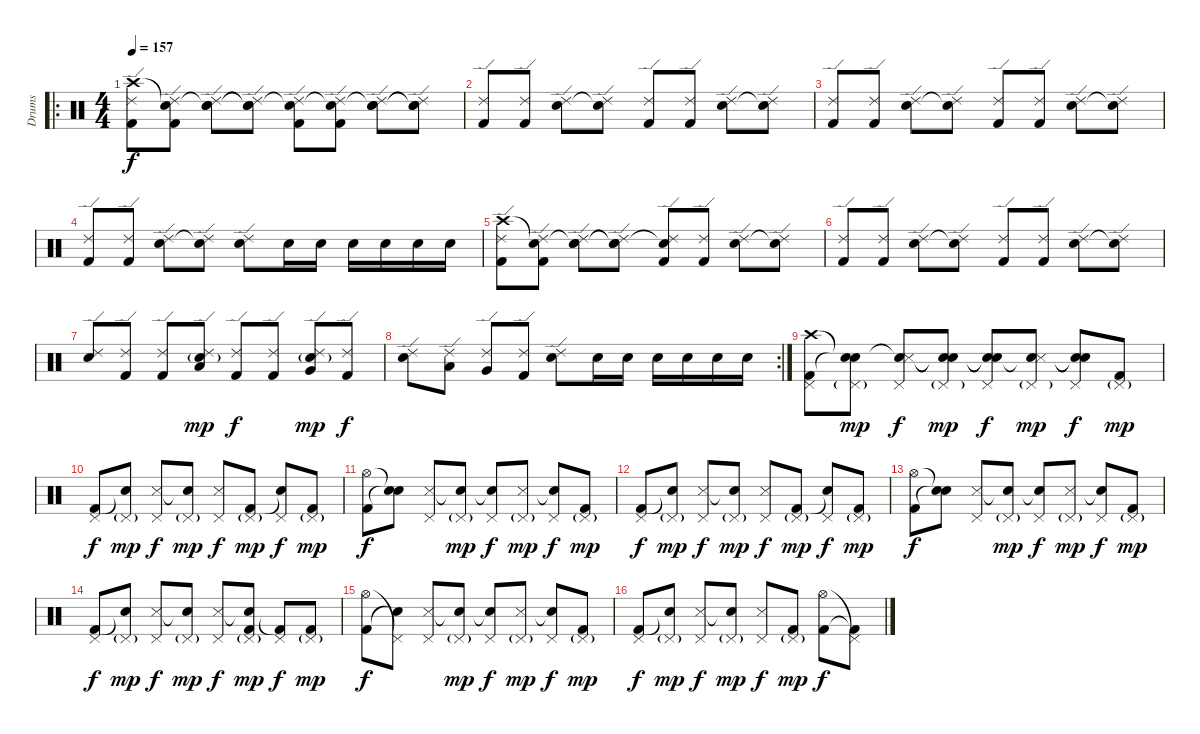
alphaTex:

\track ("Drums" "Drums") {instrument percussion}
\staff {score}
\articulation defaults
\ro
\ts (4 4)
\tempo 157
\clef neutral
\ks c
("Crash high (hit)" "Ride (edge) 2" "Kick (hit) 2").8{dy f} ("Snare (hit)"{t} "Ride (edge) 2" "Kick (hit) 2").8 ("Snare (hit)"{t} "Ride (edge) 2" "Electric Snare (hit)").8 ("Snare (hit)"{t} "Ride (edge) 2" "Snare (hit)"{t}).8 ("Snare (hit)"{t} "Ride (edge) 2" "Kick (hit) 2").8 ("Snare (hit)"{t} "Ride (edge) 2" "Kick (hit) 2").8 ("Snare (hit)"{t} "Ride (edge) 2" "Electric Snare (hit)").8 ("Snare (hit)"{t} "Ride (edge) 2" "Snare (hit)"{t}).8 |
("Ride (edge) 2" "Kick (hit) 2").8 ("Ride (edge) 2" "Kick (hit) 2").8 ("Ride (edge) 2" "Electric Snare (hit)").8 ("Ride (edge) 2" "Snare (hit)"{t}).8 ("Ride (edge) 2" "Kick (hit) 2").8 ("Ride (edge) 2" "Kick (hit) 2").8 ("Ride (edge) 2" "Electric Snare (hit)").8 ("Ride (edge) 2" "Snare (hit)"{t}).8 |
("Ride (edge) 2" "Kick (hit) 2").8 ("Ride (edge) 2" "Kick (hit) 2").8 ("Ride (edge) 2" "Electric Snare (hit)").8 ("Ride (edge) 2" "Snare (hit)"{t}).8 ("Ride (edge) 2" "Kick (hit) 2").8 ("Ride (edge) 2" "Kick (hit) 2").8 ("Ride (edge) 2" "Electric Snare (hit)").8 ("Ride (edge) 2" "Snare (hit)"{t}).8 |
("Ride (edge) 2" "Kick (hit) 2").8 ("Ride (edge) 2" "Kick (hit) 2").8 ("Ride (edge) 2" "Electric Snare (hit)").8 ("Ride (edge) 2" "Snare (hit)"{t}).8 ("Ride (edge) 2" "Electric Snare (hit)").8 "Electric Snare (hit)".16 "Electric Snare (hit)".16 "Electric Snare (hit)".16 "Electric Snare (hit)".16 "Electric Snare (hit)".16 "Electric Snare (hit)".16 |
("Crash high (hit)" "Ride (edge) 2" "Kick (hit) 2").8 ("Snare (hit)"{t} "Ride (edge) 2" "Kick (hit) 2").8 ("Snare (hit)"{t} "Ride (edge) 2" "Electric Snare (hit)").8 ("Snare (hit)"{t} "Ride (edge) 2" "Snare (hit)"{t}).8 ("Snare (hit)"{t} "Ride (edge) 2" "Kick (hit) 2").8 ("Ride (edge) 2" "Kick (hit) 2").8 ("Ride (edge) 2" "Electric Snare (hit)").8 ("Ride (edge) 2" "Snare (hit)"{t}).8 |
("Ride (edge) 2" "Kick (hit) 2").8 ("Ride (edge) 2" "Kick (hit) 2").8 ("Ride (edge) 2" "Electric Snare (hit)").8 ("Ride (edge) 2" "Snare (hit)"{t}).8 ("Ride (edge) 2" "Kick (hit) 2").8 ("Ride (edge) 2" "Kick (hit) 2").8 ("Ride (edge) 2" "Electric Snare (hit)").8 ("Ride (edge) 2" "Snare (hit)"{t}).8 |
("Ride (edge) 2" "Electric Snare (hit)").8 ("Ride (edge) 2" "Kick (hit) 2").8 ("Ride (edge) 2" "Kick (hit) 2").8 ("Ride (edge) 2" "Electric Snare (hit)"{g} "Low Tom (hit)").8{dy mp} ("Ride (edge) 2" "Kick (hit) 2").8{dy f} ("Ride (edge) 2" "Kick (hit) 2").8 ("Ride (edge) 2" "Electric Snare (hit)"{g} "Very Low Tom (hit)").8{dy mp} ("Ride (edge) 2" "Kick (hit) 2").8{dy f} |
\rc 2
("Ride (edge) 2" "Electric Snare (hit)").8 ("Ride (edge) 2" "Low Tom (hit)").8 ("Ride (edge) 2" "Very Low Tom (hit)").8 ("Ride (edge) 2" "Kick (hit) 2").8 ("Ride (edge) 2" "Electric Snare (hit)").8 "Electric Snare (hit)".16 "Electric Snare (hit)".16 "Electric Snare (hit)".16 "Electric Snare (hit)".16 "Electric Snare (hit)".16 "Electric Snare (hit)".16 |
("Crash high (hit)" "Pedal Hi-Hat (hit)" "Kick (hit) 2").8 ("Snare (hit)"{t} "Pedal Hi-Hat (hit)"{g} "Snare (hit)"{t}).8{dy mp} ("Snare (hit)"{t} "Pedal Hi-Hat (hit)" "Snare (side stick) 3").8{dy f} ("Snare (hit)"{t} "Pedal Hi-Hat (hit)"{g} "Snare (hit)"{t}).8{dy mp} ("Snare (hit)"{t} "Pedal Hi-Hat (hit)" "Snare (hit)"{t}).8{dy f} ("Snare (hit)"{t} "Pedal Hi-Hat (hit)"{g} "Snare (side stick) 3").8{dy mp} ("Snare (hit)"{t} "Pedal Hi-Hat (hit)" "Snare (hit)"{t}).8{dy f} ("Pedal Hi-Hat (hit)"{g} "Kick (hit) 2").8{dy mp} |
("Pedal Hi-Hat (hit)" "Kick (hit) 2").8{dy f} ("Pedal Hi-Hat (hit)"{g} "Snare (hit)"{t}).8{dy mp} ("Pedal Hi-Hat (hit)" "Snare (side stick) 3").8{dy f} ("Pedal Hi-Hat (hit)"{g} "Snare (hit)"{t}).8{dy mp} ("Pedal Hi-Hat (hit)" "Snare (side stick) 3").8{dy f} ("Pedal Hi-Hat (hit)"{g} "Kick (hit) 2").8{dy mp} ("Pedal Hi-Hat (hit)" "Snare (hit)"{t}).8{dy f} ("Pedal Hi-Hat (hit)"{g} "Kick (hit) 2").8{dy mp} |
("Hi-Hat (open)" "Kick (hit) 2").8{dy f} ("Snare (hit)"{t} "Snare (hit)"{t}).8 ("Pedal Hi-Hat (hit)" "Snare (side stick) 3").8 ("Pedal Hi-Hat (hit)"{g} "Snare (hit)"{t}).8{dy mp} ("Pedal Hi-Hat (hit)" "Snare (hit)"{t}).8{dy f} ("Pedal Hi-Hat (hit)"{g} "Snare (side stick) 3").8{dy mp} ("Pedal Hi-Hat (hit)" "Snare (hit)"{t}).8{dy f} ("Pedal Hi-Hat (hit)"{g} "Kick (hit) 2").8{dy mp} |
("Pedal Hi-Hat (hit)" "Kick (hit) 2").8{dy f} ("Pedal Hi-Hat (hit)"{g} "Snare (hit)"{t}).8{dy mp} ("Pedal Hi-Hat (hit)" "Snare (side stick) 3").8{dy f} ("Pedal Hi-Hat (hit)"{g} "Snare (hit)"{t}).8{dy mp} ("Pedal Hi-Hat (hit)" "Snare (side stick) 3").8{dy f} ("Pedal Hi-Hat (hit)"{g} "Kick (hit) 2").8{dy mp} ("Pedal Hi-Hat (hit)" "Snare (hit)"{t}).8{dy f} ("Pedal Hi-Hat (hit)"{g} "Kick (hit) 2").8{dy mp} |
("Hi-Hat (open)" "Kick (hit) 2").8{dy f} ("Snare (hit)"{t} "Snare (hit)"{t}).8 ("Pedal Hi-Hat (hit)" "Snare (side stick) 3").8 ("Pedal Hi-Hat (hit)"{g} "Snare (hit)"{t}).8{dy mp} ("Pedal Hi-Hat (hit)" "Snare (hit)"{t}).8{dy f} ("Pedal Hi-Hat (hit)"{g} "Snare (side stick) 3").8{dy mp} ("Pedal Hi-Hat (hit)" "Snare (hit)"{t}).8{dy f} ("Pedal Hi-Hat (hit)"{g} "Kick (hit) 2").8{dy mp} |
("Pedal Hi-Hat (hit)" "Kick (hit) 2").8{dy f} ("Pedal Hi-Hat (hit)"{g} "Snare (hit)"{t}).8{dy mp} ("Pedal Hi-Hat (hit)" "Snare (side stick) 3").8{dy f} ("Pedal Hi-Hat (hit)"{g} "Snare (hit)"{t}).8{dy mp} ("Pedal Hi-Hat (hit)" "Snare (side stick) 3").8{dy f} ("Pedal Hi-Hat (hit)"{g} "Snare (hit)"{t} "Kick (hit) 2").8{dy mp} ("Pedal Hi-Hat (hit)" "Kick (hit) 2"{t}).8{dy f} ("Pedal Hi-Hat (hit)"{g} "Kick (hit) 2").8{dy mp} |
("Hi-Hat (open)" "Kick (hit) 2").8{dy f} ("Pedal Hi-Hat (hit)"{t} "Snare (hit)"{t}).8 ("Pedal Hi-Hat (hit)" "Snare (side stick) 3").8 ("Pedal Hi-Hat (hit)"{g} "Snare (hit)"{t}).8{dy mp} ("Pedal Hi-Hat (hit)" "Snare (hit)"{t}).8{dy f} ("Pedal Hi-Hat (hit)"{g} "Snare (side stick) 3").8{dy mp} ("Pedal Hi-Hat (hit)" "Snare (hit)"{t}).8{dy f} ("Pedal Hi-Hat (hit)"{g} "Kick (hit) 2").8{dy mp} |
("Pedal Hi-Hat (hit)" "Kick (hit) 2").8{dy f} ("Pedal Hi-Hat (hit)"{g} "Snare (hit)"{t}).8{dy mp} ("Pedal Hi-Hat (hit)" "Snare (side stick) 3").8{dy f} ("Pedal Hi-Hat (hit)"{g} "Snare (hit)"{t}).8{dy mp} ("Pedal Hi-Hat (hit)" "Snare (side stick) 3").8{dy f} ("Pedal Hi-Hat (hit)"{g} "Kick (hit) 2").8{dy mp} ("Hi-Hat (open)" "Kick (hit) 2").8{dy f} ("Pedal Hi-Hat (hit)"{t} "Kick (hit) 2"{t}).8
